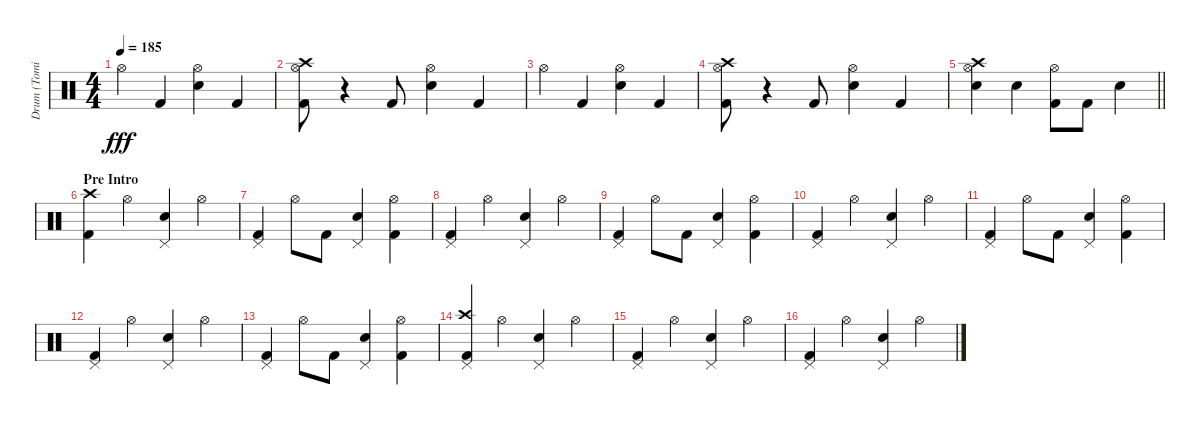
\track ("Drum (Tomi)" "Drum (Tomi") {instrument percussion}
\staff {score}
\articulation defaults
\ts (4 4)
\tempo 185
\clef neutral
\ks c "Hi-Hat (open)".4{dy fff} "Kick (hit) 2".4
("Hi-Hat (open)" "Electric Snare (hit)").4 "Kick (hit) 2".4 |
("Hi-Hat (open)" "Crash high (hit)" "Kick (hit) 2").8 r.4 "Kick (hit) 2".8 ("Hi-Hat (open)" "Electric Snare (hit)").4 "Kick (hit) 2".4 |
"Hi-Hat (open)".4 "Kick (hit) 2".4 ("Hi-Hat (open)" "Electric Snare (hit)").4 "Kick (hit) 2".4 |
("Hi-Hat (open)" "Crash high (hit)" "Kick (hit) 2").8 r.4 "Kick (hit) 2".8 ("Hi-Hat (open)" "Electric Snare (hit)").4 "Kick (hit) 2".4 |
\barLineRight lightlight
("Hi-Hat (open)" "Crash high (hit)" "Electric Snare (hit)").4 "Electric Snare (hit)".4 ("Kick (hit) 2" "Hi-Hat (open)").8 "Kick (hit) 2".8 "Electric Snare (hit)".4 |
\section ("" "Pre Intro")
("Crash high (hit)" "Kick (hit) 2").4 "Hi-Hat (open)".4 ("Pedal Hi-Hat (hit)" "Electric Snare (hit)").4 "Hi-Hat (open)".4 |
("Kick (hit) 2" "Pedal Hi-Hat (hit)").4 "Hi-Hat (open)".8 "Kick (hit) 2".8 ("Pedal Hi-Hat (hit)" "Electric Snare (hit)").4 ("Hi-Hat (open)" "Kick (hit) 2").4 |
("Pedal Hi-Hat (hit)" "Kick (hit) 2").4 "Hi-Hat (open)".4 ("Pedal Hi-Hat (hit)" "Electric Snare (hit)").4 "Hi-Hat (open)".4 |
("Pedal Hi-Hat (hit)" "Kick (hit) 2").4 "Hi-Hat (open)".8 "Kick (hit) 2".8 ("Pedal Hi-Hat (hit)" "Electric Snare (hit)").4 ("Kick (hit) 2" "Hi-Hat (open)").4 |
("Pedal Hi-Hat (hit)" "Kick (hit) 2").4 "Hi-Hat (open)".4 ("Pedal Hi-Hat (hit)" "Electric Snare (hit)").4 "Hi-Hat (open)".4 |
("Pedal Hi-Hat (hit)" "Kick (hit) 2").4 "Hi-Hat (open)".8 "Kick (hit) 2".8 ("Pedal Hi-Hat (hit)" "Electric Snare (hit)").4 ("Hi-Hat (open)" "Kick (hit) 2").4 |
("Pedal Hi-Hat (hit)" "Kick (hit) 2").4 "Hi-Hat (open)".4 ("Pedal Hi-Hat (hit)" "Electric Snare (hit)").4 "Hi-Hat (open)".4 |
("Pedal Hi-Hat (hit)" "Kick (hit) 2").4 "Hi-Hat (open)".8 "Kick (hit) 2".8 ("Pedal Hi-Hat (hit)" "Electric Snare (hit)").4 ("Hi-Hat (open)" "Kick (hit) 2").4 |
("Crash high (hit)" "Pedal Hi-Hat (hit)" "Kick (hit) 2").4 "Hi-Hat (open)".4 ("Pedal Hi-Hat (hit)" "Electric Snare (hit)").4 "Hi-Hat (open)".4 |
("Pedal Hi-Hat (hit)" "Kick (hit) 2").4 "Hi-Hat (open)".4 ("Pedal Hi-Hat (hit)" "Electric Snare (hit)").4 "Hi-Hat (open)".4 |
("Kick (hit) 2" "Pedal Hi-Hat (hit)").4 "Hi-Hat (open)".4 ("Pedal Hi-Hat (hit)" "Electric Snare (hit)").4 "Hi-Hat (open)".4
